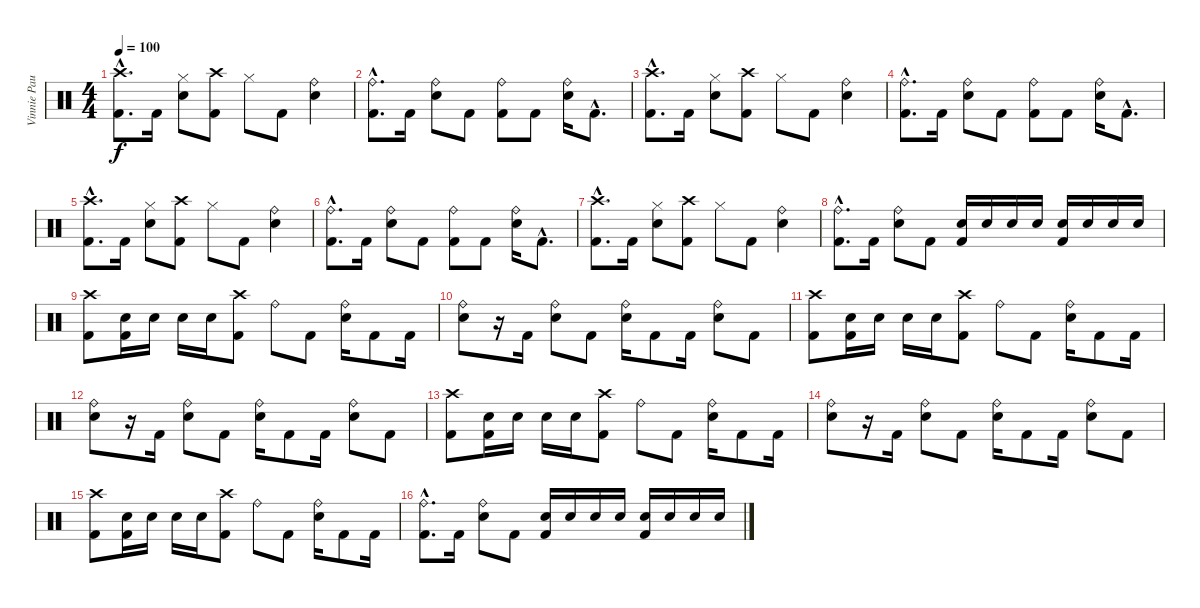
\track ("Vinnie Paul # Drums" "Vinnie Pau") {instrument percussion}
\staff {score}
\articulation defaults
\ts (4 4)
\tempo 100
\clef neutral
\ks c
("Crash high (hit)"{hac} "Kick (hit) 2"{hac}).8{d dy f} "Kick (hit) 2".16 ("Hi-Hat (closed)" "Electric Snare (hit)").8 ("Crash high (hit)" "Kick (hit) 2").8 "Hi-Hat (closed)".8 "Kick (hit) 2".8 ("Ride (bell)" "Electric Snare (hit)").4 |
("Ride (bell)"{hac} "Kick (hit) 2"{hac}).8{d} "Kick (hit) 2".16 ("Ride (bell)" "Electric Snare (hit)").8 "Kick (hit) 2".8 ("Ride (bell)" "Kick (hit) 2").8 "Kick (hit) 2".8 ("Ride (bell)" "Electric Snare (hit)").16 "Kick (hit) 2"{hac}.8{d} |
("Crash high (hit)"{hac} "Kick (hit) 2"{hac}).8{d} "Kick (hit) 2".16 ("Hi-Hat (closed)" "Electric Snare (hit)").8 ("Crash high (hit)" "Kick (hit) 2").8 "Hi-Hat (closed)".8 "Kick (hit) 2".8 ("Ride (bell)" "Electric Snare (hit)").4 |
("Ride (bell)"{hac} "Kick (hit) 2"{hac}).8{d} "Kick (hit) 2".16 ("Ride (bell)" "Electric Snare (hit)").8 "Kick (hit) 2".8 ("Ride (bell)" "Kick (hit) 2").8 "Kick (hit) 2".8 ("Ride (bell)" "Electric Snare (hit)").16 "Kick (hit) 2"{hac}.8{d} |
("Crash high (hit)"{hac} "Kick (hit) 2"{hac}).8{d} "Kick (hit) 2".16 ("Hi-Hat (closed)" "Electric Snare (hit)").8 ("Crash high (hit)" "Kick (hit) 2").8 "Hi-Hat (closed)".8 "Kick (hit) 2".8 ("Ride (bell)" "Electric Snare (hit)").4 |
("Ride (bell)"{hac} "Kick (hit) 2"{hac}).8{d} "Kick (hit) 2".16 ("Ride (bell)" "Electric Snare (hit)").8 "Kick (hit) 2".8 ("Ride (bell)" "Kick (hit) 2").8 "Kick (hit) 2".8 ("Ride (bell)" "Electric Snare (hit)").16 "Kick (hit) 2"{hac}.8{d} |
("Crash high (hit)"{hac} "Kick (hit) 2"{hac}).8{d} "Kick (hit) 2".16 ("Hi-Hat (closed)" "Electric Snare (hit)").8 ("Crash high (hit)" "Kick (hit) 2").8 "Hi-Hat (closed)".8 "Kick (hit) 2".8 ("Ride (bell)" "Electric Snare (hit)").4 |
("Ride (bell)"{hac} "Kick (hit) 2"{hac}).8{d} "Kick (hit) 2".16 ("Ride (bell)" "Electric Snare (hit)").8 "Kick (hit) 2".8 ("Electric Snare (hit)" "Kick (hit) 2").16 "Electric Snare (hit)".16 "Electric Snare (hit)".16 "Electric Snare (hit)".16 ("Electric Snare (hit)" "Kick (hit) 2").16 "Electric Snare (hit)".16 "Electric Snare (hit)".16 "Electric Snare (hit)".16 |
("Crash high (hit)" "Kick (hit) 2").8 ("Electric Snare (hit)" "Kick (hit) 2").16 "Electric Snare (hit)".16 "Electric Snare (hit)".16 "Electric Snare (hit)".16 ("Crash high (hit)" "Kick (hit) 2").8 "Ride (bell)".8 "Kick (hit) 2".8 ("Ride (bell)" "Electric Snare (hit)").16 "Kick (hit) 2".8 "Kick (hit) 2".16 |
("Ride (bell)" "Electric Snare (hit)").8 r.16 "Kick (hit) 2".16 ("Ride (bell)" "Electric Snare (hit)").8 "Kick (hit) 2".8 ("Ride (bell)" "Electric Snare (hit)").16 "Kick (hit) 2".8 "Kick (hit) 2".16 ("Ride (bell)" "Electric Snare (hit)").8 "Kick (hit) 2".8 |
("Crash high (hit)" "Kick (hit) 2").8 ("Electric Snare (hit)" "Kick (hit) 2").16 "Electric Snare (hit)".16 "Electric Snare (hit)".16 "Electric Snare (hit)".16 ("Crash high (hit)" "Kick (hit) 2").8 "Ride (bell)".8 "Kick (hit) 2".8 ("Ride (bell)" "Electric Snare (hit)").16 "Kick (hit) 2".8 "Kick (hit) 2".16 |
("Ride (bell)" "Electric Snare (hit)").8 r.16 "Kick (hit) 2".16 ("Ride (bell)" "Electric Snare (hit)").8 "Kick (hit) 2".8 ("Ride (bell)" "Electric Snare (hit)").16 "Kick (hit) 2".8 "Kick (hit) 2".16 ("Ride (bell)" "Electric Snare (hit)").8 "Kick (hit) 2".8 |
("Crash high (hit)" "Kick (hit) 2").8 ("Electric Snare (hit)" "Kick (hit) 2").16 "Electric Snare (hit)".16 "Electric Snare (hit)".16 "Electric Snare (hit)".16 ("Crash high (hit)" "Kick (hit) 2").8 "Ride (bell)".8 "Kick (hit) 2".8 ("Ride (bell)" "Electric Snare (hit)").16 "Kick (hit) 2".8 "Kick (hit) 2".16 |
("Ride (bell)" "Electric Snare (hit)").8 r.16 "Kick (hit) 2".16 ("Ride (bell)" "Electric Snare (hit)").8 "Kick (hit) 2".8 ("Ride (bell)" "Electric Snare (hit)").16 "Kick (hit) 2".8 "Kick (hit) 2".16 ("Ride (bell)" "Electric Snare (hit)").8 "Kick (hit) 2".8 |
("Crash high (hit)" "Kick (hit) 2").8 ("Electric Snare (hit)" "Kick (hit) 2").16 "Electric Snare (hit)".16 "Electric Snare (hit)".16 "Electric Snare (hit)".16 ("Crash high (hit)" "Kick (hit) 2").8 "Ride (bell)".8 "Kick (hit) 2".8 ("Ride (bell)" "Electric Snare (hit)").16 "Kick (hit) 2".8 "Kick (hit) 2".16 |
("Ride (bell)"{hac} "Kick (hit) 2"{hac}).8{d} "Kick (hit) 2".16 ("Ride (bell)" "Electric Snare (hit)").8 "Kick (hit) 2".8 ("Electric Snare (hit)" "Kick (hit) 2").16 "Electric Snare (hit)".16 "Electric Snare (hit)".16 "Electric Snare (hit)".16 ("Electric Snare (hit)" "Kick (hit) 2").16 "Electric Snare (hit)".16 "Electric Snare (hit)".16 "Electric Snare (hit)".16
